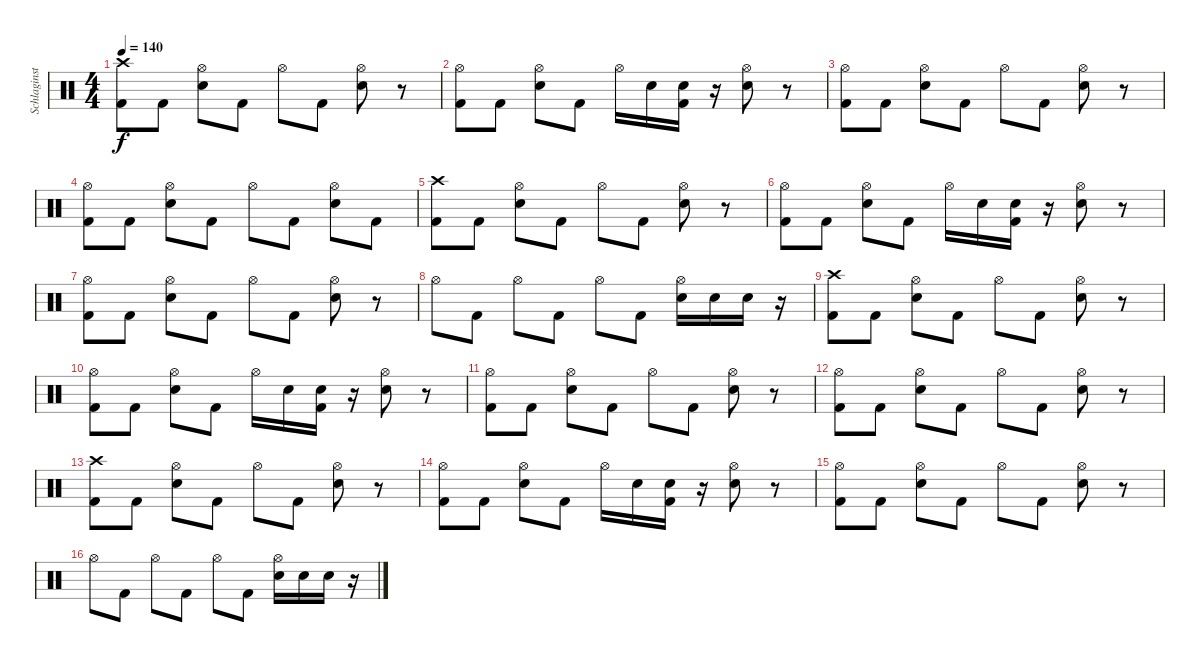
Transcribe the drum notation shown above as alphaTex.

\track ("Schlaginstrumente - Auswahl" "Schlaginst") {instrument percussion}
\staff {score}
\articulation defaults
\ts (4 4)
\tempo 140
\clef neutral
\ks c
("Crash high (hit)" "Kick (hit) 2").8{dy f} "Kick (hit) 2".8 ("Hi-Hat (open)" "Snare (hit) 2").8 "Kick (hit) 2".8 "Hi-Hat (open)".8 "Kick (hit) 2".8 ("Hi-Hat (open)" "Snare (hit) 2").8 r.8 |
("Hi-Hat (open)" "Kick (hit) 2").8 "Kick (hit) 2".8 ("Hi-Hat (open)" "Snare (hit) 2").8 "Kick (hit) 2".8 "Hi-Hat (open)".16 "Snare (hit) 2".16 ("Snare (hit) 2" "Kick (hit) 2").16 r.16 ("Hi-Hat (open)" "Snare (hit) 2").8 r.8 |
("Hi-Hat (open)" "Kick (hit) 2").8 "Kick (hit) 2".8 ("Hi-Hat (open)" "Snare (hit) 2").8 "Kick (hit) 2".8 "Hi-Hat (open)".8 "Kick (hit) 2".8 ("Hi-Hat (open)" "Snare (hit) 2").8 r.8 |
("Hi-Hat (open)" "Kick (hit) 2").8 "Kick (hit) 2".8 ("Hi-Hat (open)" "Snare (hit) 2").8 "Kick (hit) 2".8 "Hi-Hat (open)".8 "Kick (hit) 2".8 ("Hi-Hat (open)" "Snare (hit) 2").8 "Kick (hit) 2".8 |
("Crash high (hit)" "Kick (hit) 2").8 "Kick (hit) 2".8 ("Hi-Hat (open)" "Snare (hit) 2").8 "Kick (hit) 2".8 "Hi-Hat (open)".8 "Kick (hit) 2".8 ("Hi-Hat (open)" "Snare (hit) 2").8 r.8 |
("Hi-Hat (open)" "Kick (hit) 2").8 "Kick (hit) 2".8 ("Hi-Hat (open)" "Snare (hit) 2").8 "Kick (hit) 2".8 "Hi-Hat (open)".16 "Snare (hit) 2".16 ("Snare (hit) 2" "Kick (hit) 2").16 r.16 ("Hi-Hat (open)" "Snare (hit) 2").8 r.8 |
("Hi-Hat (open)" "Kick (hit) 2").8 "Kick (hit) 2".8 ("Hi-Hat (open)" "Snare (hit) 2").8 "Kick (hit) 2".8 "Hi-Hat (open)".8 "Kick (hit) 2".8 ("Hi-Hat (open)" "Snare (hit) 2").8 r.8 |
"Hi-Hat (open)".8 "Kick (hit) 2".8 "Hi-Hat (open)".8 "Kick (hit) 2".8 "Hi-Hat (open)".8 "Kick (hit) 2".8 ("Hi-Hat (open)" "Snare (hit) 2").16 "Snare (hit) 2".16 "Snare (hit) 2".16 r.16 |
("Crash high (hit)" "Kick (hit) 2").8 "Kick (hit) 2".8 ("Hi-Hat (open)" "Snare (hit) 2").8 "Kick (hit) 2".8 "Hi-Hat (open)".8 "Kick (hit) 2".8 ("Hi-Hat (open)" "Snare (hit) 2").8 r.8 |
("Hi-Hat (open)" "Kick (hit) 2").8 "Kick (hit) 2".8 ("Hi-Hat (open)" "Snare (hit) 2").8 "Kick (hit) 2".8 "Hi-Hat (open)".16 "Snare (hit) 2".16 ("Snare (hit) 2" "Kick (hit) 2").16 r.16 ("Hi-Hat (open)" "Snare (hit) 2").8 r.8 |
("Hi-Hat (open)" "Kick (hit) 2").8 "Kick (hit) 2".8 ("Hi-Hat (open)" "Snare (hit) 2").8 "Kick (hit) 2".8 "Hi-Hat (open)".8 "Kick (hit) 2".8 ("Hi-Hat (open)" "Snare (hit) 2").8 r.8 |
("Hi-Hat (open)" "Kick (hit) 2").8 "Kick (hit) 2".8 ("Hi-Hat (open)" "Snare (hit) 2").8 "Kick (hit) 2".8 "Hi-Hat (open)".8 "Kick (hit) 2".8 ("Hi-Hat (open)" "Snare (hit) 2").8 r.8 |
("Crash high (hit)" "Kick (hit) 2").8 "Kick (hit) 2".8 ("Hi-Hat (open)" "Snare (hit) 2").8 "Kick (hit) 2".8 "Hi-Hat (open)".8 "Kick (hit) 2".8 ("Hi-Hat (open)" "Snare (hit) 2").8 r.8 |
("Hi-Hat (open)" "Kick (hit) 2").8 "Kick (hit) 2".8 ("Hi-Hat (open)" "Snare (hit) 2").8 "Kick (hit) 2".8 "Hi-Hat (open)".16 "Snare (hit) 2".16 ("Snare (hit) 2" "Kick (hit) 2").16 r.16 ("Hi-Hat (open)" "Snare (hit) 2").8 r.8 |
("Hi-Hat (open)" "Kick (hit) 2").8 "Kick (hit) 2".8 ("Hi-Hat (open)" "Snare (hit) 2").8 "Kick (hit) 2".8 "Hi-Hat (open)".8 "Kick (hit) 2".8 ("Hi-Hat (open)" "Snare (hit) 2").8 r.8 |
"Hi-Hat (open)".8 "Kick (hit) 2".8 "Hi-Hat (open)".8 "Kick (hit) 2".8 "Hi-Hat (open)".8 "Kick (hit) 2".8 ("Hi-Hat (open)" "Snare (hit) 2").16 "Snare (hit) 2".16 "Snare (hit) 2".16 r.16
